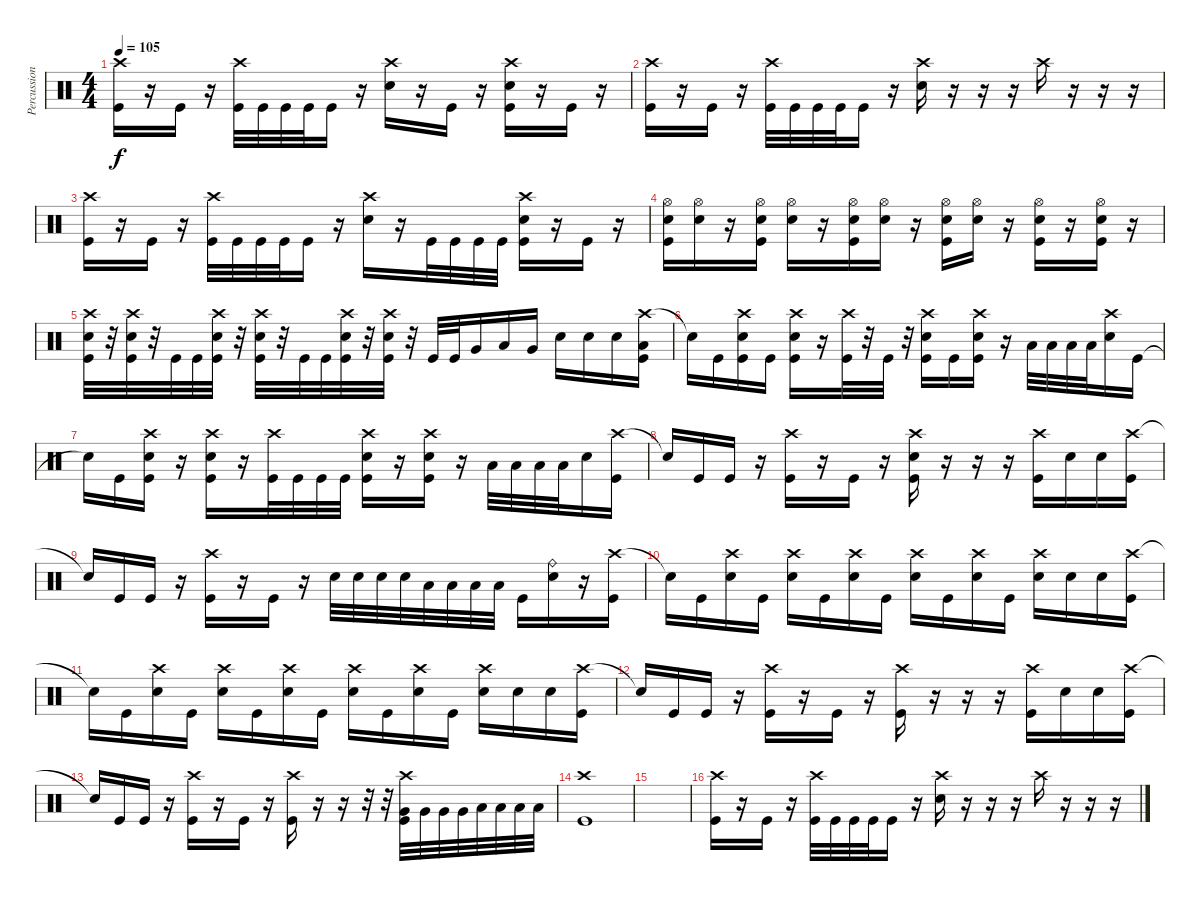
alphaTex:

\track ("Percussion" "Percussion") {instrument percussion}
\staff {score}
\articulation defaults
\ts (4 4)
\tempo 105
\clef neutral
\ks c
("Crash high (hit)" "Kick (hit)").16{dy f} r.16 "Kick (hit)".16 r.16 ("Crash high (hit)" "Kick (hit)").32 "Kick (hit)".32 "Kick (hit)".32 "Kick (hit)".32 "Kick (hit)".16 r.16 ("Crash high (hit)" "Snare (hit) 2").16 r.16 "Kick (hit)".16 r.16 ("Crash high (hit)" "Snare (hit) 2" "Kick (hit)").16 r.16 "Kick (hit)".16 r.16 |
("Crash high (hit)" "Kick (hit)").16 r.16 "Kick (hit)".16 r.16 ("Crash high (hit)" "Kick (hit)").32 "Kick (hit)".32 "Kick (hit)".32 "Kick (hit)".32 "Kick (hit)".16 r.16 ("Crash high (hit)" "Snare (hit) 2").16 r.16 r.16 r.16 "Crash high (hit)".16 r.16 r.16 r.16 |
("Crash high (hit)" "Kick (hit)").16 r.16 "Kick (hit)".16 r.16 ("Crash high (hit)" "Kick (hit)").32 "Kick (hit)".32 "Kick (hit)".32 "Kick (hit)".32 "Kick (hit)".16 r.16 ("Crash high (hit)" "Snare (hit) 2").16 r.16 "Kick (hit)".32 "Kick (hit)".32 "Kick (hit)".32 "Kick (hit)".32 ("Crash high (hit)" "Snare (hit) 2" "Kick (hit)").16 r.16 "Kick (hit)".16 r.16 |
("Hi-Hat (open)" "Snare (hit) 2" "Kick (hit)").16 ("Hi-Hat (open)" "Snare (hit) 2").16 r.16 ("Hi-Hat (open)" "Snare (hit) 2" "Kick (hit)").16 ("Hi-Hat (open)" "Snare (hit) 2").16 r.16 ("Hi-Hat (open)" "Snare (hit) 2" "Kick (hit)").16 ("Hi-Hat (open)" "Snare (hit) 2").16 r.16 ("Hi-Hat (open)" "Snare (hit) 2" "Kick (hit)").16 ("Hi-Hat (open)" "Snare (hit) 2").16 r.16 ("Hi-Hat (open)" "Snare (hit) 2" "Kick (hit)").16 r.16 ("Hi-Hat (open)" "Snare (hit) 2" "Kick (hit)").16 r.16 |
("Crash high (hit)" "Snare (hit) 2" "Kick (hit)").32 r.32 ("Crash high (hit)" "Snare (hit) 2" "Kick (hit)").32 r.32 "Kick (hit)".32 "Kick (hit)".32 ("Crash high (hit)" "Snare (hit) 2" "Kick (hit)").32 r.32 ("Crash high (hit)" "Snare (hit) 2" "Kick (hit)").32 r.32 "Kick (hit)".32 "Kick (hit)".32 ("Crash high (hit)" "Snare (hit) 2" "Kick (hit)").32 r.32 ("Crash high (hit)" "Snare (hit) 2" "Kick (hit)").32 r.32 "Kick (hit)".32 "Kick (hit)".32 "Very Low Tom (hit)".16 "Low Tom (hit)".16 "Very Low Tom (hit)".16 "Snare (hit) 2".16 "Snare (hit) 2".16 "Snare (hit) 2".16 ("Crash high (hit)" "Low Floor Tom (hit)" "Kick (hit)").16 |
"Snare (hit)"{t}.16 "Kick (hit)".16 ("Crash high (hit)" "Snare (hit) 2" "Kick (hit)").16 "Kick (hit)".16 ("Crash high (hit)" "Snare (hit) 2" "Kick (hit)").16 r.16 ("Crash high (hit)" "Kick (hit)").32 r.32 "Kick (hit)".32 r.32 ("Crash high (hit)" "Snare (hit) 2" "Kick (hit)").16 "Kick (hit)".16 ("Crash high (hit)" "Snare (hit) 2" "Kick (hit)").16 r.16 "Low Floor Tom (hit)".32 "Low Floor Tom (hit)".32 "Low Floor Tom (hit)".32 "Low Floor Tom (hit)".32 ("Crash high (hit)" "Snare (hit) 2").16 "Kick (hit)".16 |
"Snare (hit)"{t}.16 "Kick (hit)".16 ("Crash high (hit)" "Snare (hit) 2" "Kick (hit)").16 r.16 ("Crash high (hit)" "Snare (hit) 2" "Kick (hit)").16 r.16 ("Crash high (hit)" "Kick (hit)").32 "Kick (hit)".32 "Kick (hit)".32 "Kick (hit)".32 ("Crash high (hit)" "Snare (hit) 2" "Kick (hit)").16 r.16 ("Crash high (hit)" "Snare (hit) 2" "Kick (hit)").16 r.16 "Low Floor Tom (hit)".32 "Low Floor Tom (hit)".32 "Low Floor Tom (hit)".32 "Low Floor Tom (hit)".32 "Snare (hit) 2".16 ("Crash high (hit)" "Kick (hit)").16 |
"Snare (hit)"{t}.16 "Kick (hit)".16 "Kick (hit)".16 r.16 ("Crash high (hit)" "Kick (hit)").16 r.16 "Kick (hit)".16 r.16 ("Crash high (hit)" "Snare (hit) 2" "Kick (hit)").16 r.16 r.16 r.16 ("Crash high (hit)" "Kick (hit)").16 "Snare (hit) 2".16 "Snare (hit) 2".16 ("Crash high (hit)" "Kick (hit)").16 |
"Snare (hit)"{t}.16 "Kick (hit)".16 "Kick (hit)".16 r.16 ("Crash high (hit)" "Kick (hit)").16 r.16 "Kick (hit)".16 r.16 "Snare (hit) 2".32 "Snare (hit) 2".32 "Snare (hit) 2".32 "Snare (hit) 2".32 "Low Tom (hit)".32 "Low Tom (hit)".32 "Low Tom (hit)".32 "Low Tom (hit)".32 "Kick (hit)".16 ("Ride (bell)" "Snare (hit) 2").16 r.16 ("Crash high (hit)" "Kick (hit)").16 |
"Snare (hit)"{t}.16 "Kick (hit)".16 ("Crash high (hit)" "Snare (hit) 2").16 "Kick (hit)".16 ("Crash high (hit)" "Snare (hit) 2").16 "Kick (hit)".16 ("Crash high (hit)" "Snare (hit) 2").16 "Kick (hit)".16 ("Crash high (hit)" "Snare (hit) 2").16 "Kick (hit)".16 ("Crash high (hit)" "Snare (hit) 2").16 "Kick (hit)".16 ("Crash high (hit)" "Snare (hit) 2").16 "Snare (hit) 2".16 "Snare (hit) 2".16 ("Crash high (hit)" "Kick (hit)").16 |
"Snare (hit)"{t}.16 "Kick (hit)".16 ("Crash high (hit)" "Snare (hit) 2").16 "Kick (hit)".16 ("Crash high (hit)" "Snare (hit) 2").16 "Kick (hit)".16 ("Crash high (hit)" "Snare (hit) 2").16 "Kick (hit)".16 ("Crash high (hit)" "Snare (hit) 2").16 "Kick (hit)".16 ("Crash high (hit)" "Snare (hit) 2").16 "Kick (hit)".16 ("Crash high (hit)" "Snare (hit) 2").16 "Snare (hit) 2".16 "Snare (hit) 2".16 ("Crash high (hit)" "Kick (hit)").16 |
"Snare (hit)"{t}.16 "Kick (hit)".16 "Kick (hit)".16 r.16 ("Crash high (hit)" "Kick (hit)").16 r.16 "Kick (hit)".16 r.16 ("Crash high (hit)" "Kick (hit)").16 r.16 r.16 r.16 ("Crash high (hit)" "Kick (hit)").16 "Snare (hit) 2".16 "Snare (hit) 2".16 ("Crash high (hit)" "Kick (hit)").16 |
"Snare (hit)"{t}.16 "Kick (hit)".16 "Kick (hit)".16 r.16 ("Crash high (hit)" "Kick (hit)").16 r.16 "Kick (hit)".16 r.16 ("Crash high (hit)" "Kick (hit)").16 r.16 r.16 r.32 r.32 ("Crash high (hit)" "Very Low Tom (hit)" "Kick (hit)").32 "Very Low Tom (hit)".32 "Very Low Tom (hit)".32 "Very Low Tom (hit)".32 "Low Floor Tom (hit)".32 "Low Floor Tom (hit)".32 "Low Floor Tom (hit)".32 "Low Floor Tom (hit)".32 |
("Crash high (hit)" "Kick (hit)").1 |
|
("Crash high (hit)" "Kick (hit)").16 r.16 "Kick (hit)".16 r.16 ("Crash high (hit)" "Kick (hit)").32 "Kick (hit)".32 "Kick (hit)".32 "Kick (hit)".32 "Kick (hit)".16 r.16 ("Crash high (hit)" "Snare (hit) 2").16 r.16 r.16 r.16 "Crash high (hit)".16 r.16 r.16 r.16
